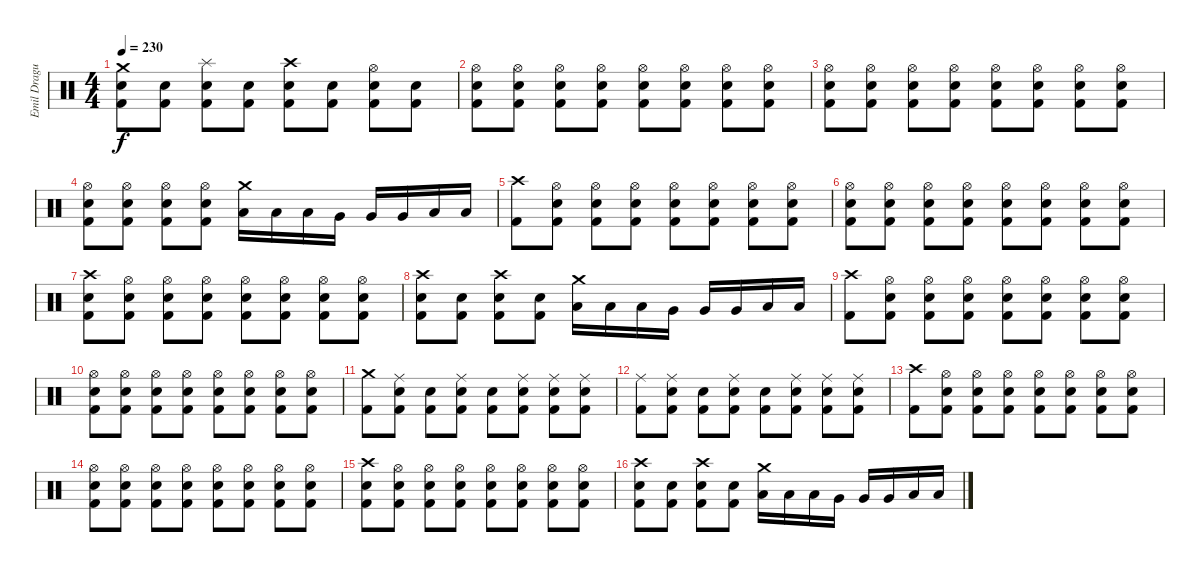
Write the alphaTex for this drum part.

\track ("Emil Dragutinovic" "Emil Dragu") {instrument percussion}
\staff {score}
\articulation defaults
\ts (4 4)
\tempo 230
\clef neutral
\ks c
("Crash medium (hit)" "Electric Snare (hit)" "Kick (hit) 2").8{dy f} ("Electric Snare (hit)" "Kick (hit) 2").8 ("Splash (hit)" "Electric Snare (hit)" "Kick (hit) 2").8 ("Electric Snare (hit)" "Kick (hit) 2").8 ("Crash high (hit)" "Electric Snare (hit)" "Kick (hit) 2").8 ("Electric Snare (hit)" "Kick (hit) 2").8 ("Hi-Hat (open)" "Electric Snare (hit)" "Kick (hit) 2").8 ("Electric Snare (hit)" "Kick (hit) 2").8 |
("Hi-Hat (open)" "Electric Snare (hit)" "Kick (hit) 2").8 ("Hi-Hat (open)" "Electric Snare (hit)" "Kick (hit) 2").8 ("Hi-Hat (open)" "Electric Snare (hit)" "Kick (hit) 2").8 ("Hi-Hat (open)" "Electric Snare (hit)" "Kick (hit) 2").8 ("Hi-Hat (open)" "Electric Snare (hit)" "Kick (hit) 2").8 ("Hi-Hat (open)" "Electric Snare (hit)" "Kick (hit) 2").8 ("Hi-Hat (open)" "Electric Snare (hit)" "Kick (hit) 2").8 ("Hi-Hat (open)" "Electric Snare (hit)" "Kick (hit) 2").8 |
("Hi-Hat (open)" "Electric Snare (hit)" "Kick (hit) 2").8 ("Hi-Hat (open)" "Electric Snare (hit)" "Kick (hit) 2").8 ("Hi-Hat (open)" "Electric Snare (hit)" "Kick (hit) 2").8 ("Hi-Hat (open)" "Electric Snare (hit)" "Kick (hit) 2").8 ("Hi-Hat (open)" "Electric Snare (hit)" "Kick (hit) 2").8 ("Hi-Hat (open)" "Electric Snare (hit)" "Kick (hit) 2").8 ("Hi-Hat (open)" "Electric Snare (hit)" "Kick (hit) 2").8 ("Hi-Hat (open)" "Electric Snare (hit)" "Kick (hit) 2").8 |
("Hi-Hat (open)" "Electric Snare (hit)" "Kick (hit) 2").8 ("Hi-Hat (open)" "Electric Snare (hit)" "Kick (hit) 2").8 ("Hi-Hat (open)" "Electric Snare (hit)" "Kick (hit) 2").8 ("Hi-Hat (open)" "Electric Snare (hit)" "Kick (hit) 2").8 ("Crash medium (hit)" "Low Tom (hit)").16 "Low Tom (hit)".16 "Low Tom (hit)".16 "Very Low Tom (hit)".16 "Very Low Tom (hit)".16 "Very Low Tom (hit)".16 "Low Floor Tom (hit)".16 "Low Floor Tom (hit)".16 |
("Crash high (hit)" "Kick (hit) 2").8 ("Hi-Hat (open)" "Electric Snare (hit)" "Kick (hit) 2").8 ("Hi-Hat (open)" "Electric Snare (hit)" "Kick (hit) 2").8 ("Hi-Hat (open)" "Electric Snare (hit)" "Kick (hit) 2").8 ("Hi-Hat (open)" "Electric Snare (hit)" "Kick (hit) 2").8 ("Hi-Hat (open)" "Electric Snare (hit)" "Kick (hit) 2").8 ("Hi-Hat (open)" "Electric Snare (hit)" "Kick (hit) 2").8 ("Hi-Hat (open)" "Electric Snare (hit)" "Kick (hit) 2").8 |
("Hi-Hat (open)" "Electric Snare (hit)" "Kick (hit) 2").8 ("Hi-Hat (open)" "Electric Snare (hit)" "Kick (hit) 2").8 ("Hi-Hat (open)" "Electric Snare (hit)" "Kick (hit) 2").8 ("Hi-Hat (open)" "Electric Snare (hit)" "Kick (hit) 2").8 ("Hi-Hat (open)" "Electric Snare (hit)" "Kick (hit) 2").8 ("Hi-Hat (open)" "Electric Snare (hit)" "Kick (hit) 2").8 ("Hi-Hat (open)" "Electric Snare (hit)" "Kick (hit) 2").8 ("Hi-Hat (open)" "Electric Snare (hit)" "Kick (hit) 2").8 |
("Crash high (hit)" "Electric Snare (hit)" "Kick (hit) 2").8 ("Hi-Hat (open)" "Electric Snare (hit)" "Kick (hit) 2").8 ("Hi-Hat (open)" "Electric Snare (hit)" "Kick (hit) 2").8 ("Hi-Hat (open)" "Electric Snare (hit)" "Kick (hit) 2").8 ("Hi-Hat (open)" "Electric Snare (hit)" "Kick (hit) 2").8 ("Hi-Hat (open)" "Electric Snare (hit)" "Kick (hit) 2").8 ("Hi-Hat (open)" "Electric Snare (hit)" "Kick (hit) 2").8 ("Hi-Hat (open)" "Electric Snare (hit)" "Kick (hit) 2").8 |
("Crash high (hit)" "Electric Snare (hit)" "Kick (hit) 2").8 ("Electric Snare (hit)" "Kick (hit) 2").8 ("Crash high (hit)" "Electric Snare (hit)" "Kick (hit) 2").8 ("Electric Snare (hit)" "Kick (hit) 2").8 ("Crash medium (hit)" "Low Tom (hit)").16 "Low Tom (hit)".16 "Low Tom (hit)".16 "Very Low Tom (hit)".16 "Very Low Tom (hit)".16 "Very Low Tom (hit)".16 "Low Floor Tom (hit)".16 "Low Floor Tom (hit)".16 |
("Crash high (hit)" "Kick (hit) 2").8 ("Hi-Hat (open)" "Electric Snare (hit)" "Kick (hit) 2").8 ("Hi-Hat (open)" "Electric Snare (hit)" "Kick (hit) 2").8 ("Hi-Hat (open)" "Electric Snare (hit)" "Kick (hit) 2").8 ("Hi-Hat (open)" "Electric Snare (hit)" "Kick (hit) 2").8 ("Hi-Hat (open)" "Electric Snare (hit)" "Kick (hit) 2").8 ("Hi-Hat (open)" "Electric Snare (hit)" "Kick (hit) 2").8 ("Hi-Hat (open)" "Electric Snare (hit)" "Kick (hit) 2").8 |
("Hi-Hat (open)" "Electric Snare (hit)" "Kick (hit) 2").8 ("Hi-Hat (open)" "Electric Snare (hit)" "Kick (hit) 2").8 ("Hi-Hat (open)" "Electric Snare (hit)" "Kick (hit) 2").8 ("Hi-Hat (open)" "Electric Snare (hit)" "Kick (hit) 2").8 ("Hi-Hat (open)" "Electric Snare (hit)" "Kick (hit) 2").8 ("Hi-Hat (open)" "Electric Snare (hit)" "Kick (hit) 2").8 ("Hi-Hat (open)" "Electric Snare (hit)" "Kick (hit) 2").8 ("Hi-Hat (open)" "Electric Snare (hit)" "Kick (hit) 2").8 |
("Crash medium (hit)" "Kick (hit) 2").8 ("Ride (middle)" "Electric Snare (hit)" "Kick (hit) 2").8 ("Electric Snare (hit)" "Kick (hit) 2").8 ("Ride (middle)" "Electric Snare (hit)" "Kick (hit) 2").8 ("Electric Snare (hit)" "Kick (hit) 2").8 ("Ride (middle)" "Electric Snare (hit)" "Kick (hit) 2").8 ("Ride (middle)" "Electric Snare (hit)" "Kick (hit) 2").8 ("Ride (middle)" "Electric Snare (hit)" "Kick (hit) 2").8 |
("Ride (middle)" "Kick (hit) 2").8 ("Ride (middle)" "Electric Snare (hit)" "Kick (hit) 2").8 ("Electric Snare (hit)" "Kick (hit) 2").8 ("Ride (middle)" "Electric Snare (hit)" "Kick (hit) 2").8 ("Electric Snare (hit)" "Kick (hit) 2").8 ("Ride (middle)" "Electric Snare (hit)" "Kick (hit) 2").8 ("Ride (middle)" "Electric Snare (hit)" "Kick (hit) 2").8 ("Ride (middle)" "Electric Snare (hit)" "Kick (hit) 2").8 |
("Crash high (hit)" "Kick (hit) 2").8 ("Hi-Hat (open)" "Electric Snare (hit)" "Kick (hit) 2").8 ("Hi-Hat (open)" "Electric Snare (hit)" "Kick (hit) 2").8 ("Hi-Hat (open)" "Electric Snare (hit)" "Kick (hit) 2").8 ("Hi-Hat (open)" "Electric Snare (hit)" "Kick (hit) 2").8 ("Hi-Hat (open)" "Electric Snare (hit)" "Kick (hit) 2").8 ("Hi-Hat (open)" "Electric Snare (hit)" "Kick (hit) 2").8 ("Hi-Hat (open)" "Electric Snare (hit)" "Kick (hit) 2").8 |
("Hi-Hat (open)" "Electric Snare (hit)" "Kick (hit) 2").8 ("Hi-Hat (open)" "Electric Snare (hit)" "Kick (hit) 2").8 ("Hi-Hat (open)" "Electric Snare (hit)" "Kick (hit) 2").8 ("Hi-Hat (open)" "Electric Snare (hit)" "Kick (hit) 2").8 ("Hi-Hat (open)" "Electric Snare (hit)" "Kick (hit) 2").8 ("Hi-Hat (open)" "Electric Snare (hit)" "Kick (hit) 2").8 ("Hi-Hat (open)" "Electric Snare (hit)" "Kick (hit) 2").8 ("Hi-Hat (open)" "Electric Snare (hit)" "Kick (hit) 2").8 |
("Crash high (hit)" "Electric Snare (hit)" "Kick (hit) 2").8 ("Hi-Hat (open)" "Electric Snare (hit)" "Kick (hit) 2").8 ("Hi-Hat (open)" "Electric Snare (hit)" "Kick (hit) 2").8 ("Hi-Hat (open)" "Electric Snare (hit)" "Kick (hit) 2").8 ("Hi-Hat (open)" "Electric Snare (hit)" "Kick (hit) 2").8 ("Hi-Hat (open)" "Electric Snare (hit)" "Kick (hit) 2").8 ("Hi-Hat (open)" "Electric Snare (hit)" "Kick (hit) 2").8 ("Hi-Hat (open)" "Electric Snare (hit)" "Kick (hit) 2").8 |
("Crash high (hit)" "Electric Snare (hit)" "Kick (hit) 2").8 ("Electric Snare (hit)" "Kick (hit) 2").8 ("Crash high (hit)" "Electric Snare (hit)" "Kick (hit) 2").8 ("Electric Snare (hit)" "Kick (hit) 2").8 ("Crash medium (hit)" "Low Tom (hit)").16 "Low Tom (hit)".16 "Low Tom (hit)".16 "Very Low Tom (hit)".16 "Very Low Tom (hit)".16 "Very Low Tom (hit)".16 "Low Floor Tom (hit)".16 "Low Floor Tom (hit)".16
